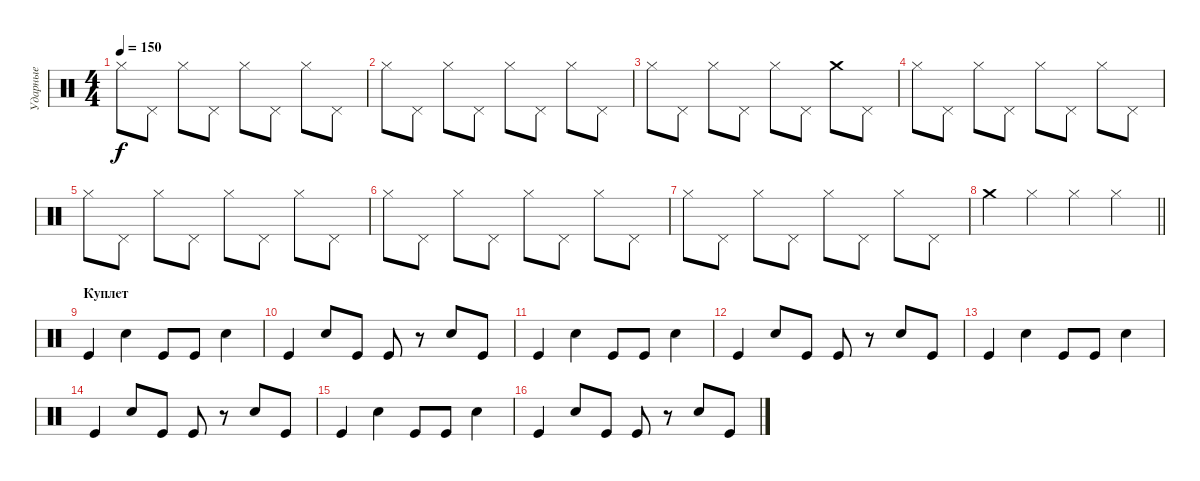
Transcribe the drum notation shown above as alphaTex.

\track ("Ударные" "Ударные") {instrument percussion}
\staff {score}
\articulation defaults
\ts (4 4)
\tempo 150
\clef neutral
\ks c "Hi-Hat (closed)".8{dy f} "Pedal Hi-Hat (hit)".8 "Hi-Hat (closed)".8 "Pedal Hi-Hat (hit)".8 "Hi-Hat (closed)".8 "Pedal Hi-Hat (hit)".8 "Hi-Hat (closed)".8 "Pedal Hi-Hat (hit)".8
|
"Hi-Hat (closed)".8 "Pedal Hi-Hat (hit)".8 "Hi-Hat (closed)".8 "Pedal Hi-Hat (hit)".8 "Hi-Hat (closed)".8 "Pedal Hi-Hat (hit)".8 "Hi-Hat (closed)".8 "Pedal Hi-Hat (hit)".8 |
"Hi-Hat (closed)".8 "Pedal Hi-Hat (hit)".8 "Hi-Hat (closed)".8 "Pedal Hi-Hat (hit)".8 "Hi-Hat (closed)".8 "Pedal Hi-Hat (hit)".8 "Crash medium (hit)".8 "Pedal Hi-Hat (hit)".8 |
"Hi-Hat (closed)".8 "Pedal Hi-Hat (hit)".8 "Hi-Hat (closed)".8 "Pedal Hi-Hat (hit)".8 "Hi-Hat (closed)".8 "Pedal Hi-Hat (hit)".8 "Hi-Hat (closed)".8 "Pedal Hi-Hat (hit)".8 |
"Hi-Hat (closed)".8 "Pedal Hi-Hat (hit)".8 "Hi-Hat (closed)".8 "Pedal Hi-Hat (hit)".8 "Hi-Hat (closed)".8 "Pedal Hi-Hat (hit)".8 "Hi-Hat (closed)".8 "Pedal Hi-Hat (hit)".8 |
"Hi-Hat (closed)".8 "Pedal Hi-Hat (hit)".8 "Hi-Hat (closed)".8 "Pedal Hi-Hat (hit)".8 "Hi-Hat (closed)".8 "Pedal Hi-Hat (hit)".8 "Hi-Hat (closed)".8 "Pedal Hi-Hat (hit)".8 |
"Hi-Hat (closed)".8 "Pedal Hi-Hat (hit)".8 "Hi-Hat (closed)".8 "Pedal Hi-Hat (hit)".8 "Hi-Hat (closed)".8 "Pedal Hi-Hat (hit)".8 "Hi-Hat (closed)".8 "Pedal Hi-Hat (hit)".8 |
\barLineRight lightlight "Crash medium (hit)".4 "Hi-Hat (closed)".4 "Hi-Hat (closed)".4 "Hi-Hat (closed)".4
|
\section ("" "Куплет")
"Kick (hit)".4 "Snare (hit) 2".4 "Kick (hit)".8 "Kick (hit)".8 "Snare (hit) 2".4 |
"Kick (hit)".4 "Snare (hit) 2".8 "Kick (hit)".8 "Kick (hit)".8 r.8 "Snare (hit) 2".8 "Kick (hit)".8 |
"Kick (hit)".4 "Snare (hit) 2".4 "Kick (hit)".8 "Kick (hit)".8 "Snare (hit) 2".4 |
"Kick (hit)".4 "Snare (hit) 2".8 "Kick (hit)".8 "Kick (hit)".8 r.8 "Snare (hit) 2".8 "Kick (hit)".8 |
"Kick (hit)".4 "Snare (hit) 2".4 "Kick (hit)".8 "Kick (hit)".8 "Snare (hit) 2".4 |
"Kick (hit)".4 "Snare (hit) 2".8 "Kick (hit)".8 "Kick (hit)".8 r.8 "Snare (hit) 2".8 "Kick (hit)".8 |
"Kick (hit)".4 "Snare (hit) 2".4 "Kick (hit)".8 "Kick (hit)".8 "Snare (hit) 2".4 |
"Kick (hit)".4 "Snare (hit) 2".8 "Kick (hit)".8 "Kick (hit)".8 r.8 "Snare (hit) 2".8 "Kick (hit)".8
